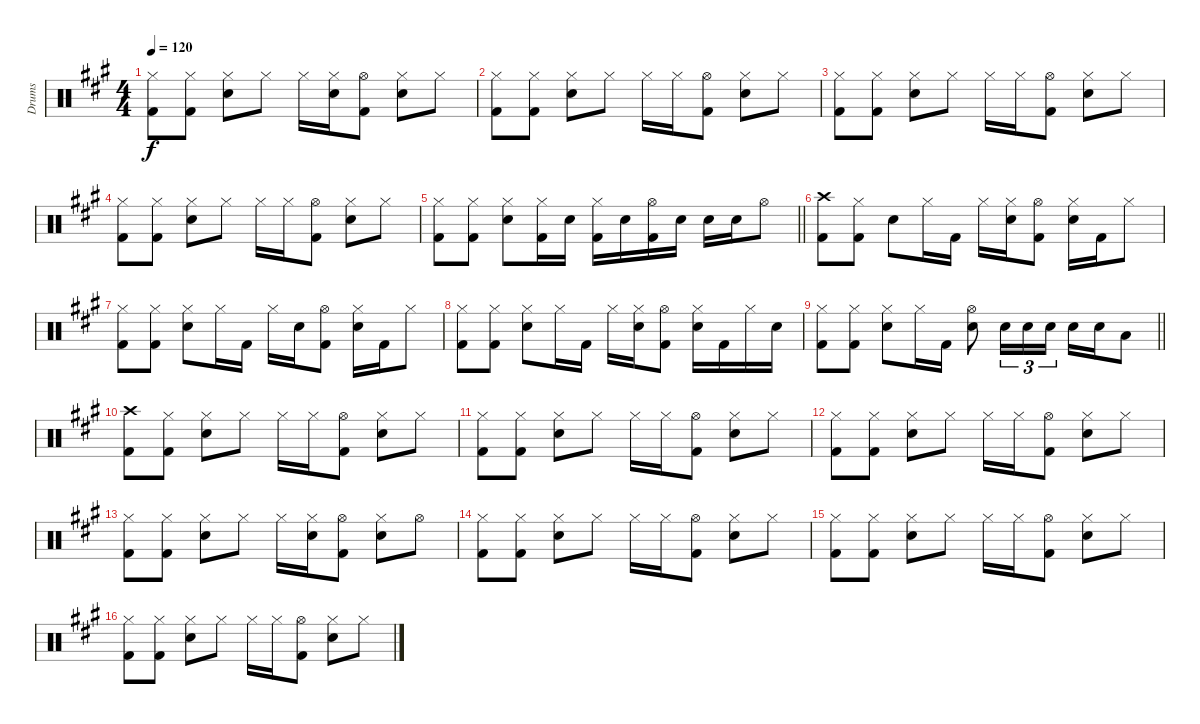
\track ("Drums" "Drums") {instrument percussion}
\staff {score}
\articulation defaults
\ts (4 4)
\tempo 120
\clef neutral
\ks a
("Hi-Hat (closed)" "Kick (hit) 2").8{dy f} ("Hi-Hat (closed)" "Kick (hit) 2").8 ("Hi-Hat (closed)" "Electric Snare (hit)").8 "Hi-Hat (closed)".8 "Hi-Hat (closed)".16 ("Hi-Hat (closed)" "Electric Snare (hit)").16 ("Hi-Hat (open)" "Kick (hit) 2").8 ("Hi-Hat (closed)" "Electric Snare (hit)").8 "Hi-Hat (closed)".8 |
("Hi-Hat (closed)" "Kick (hit) 2").8 ("Hi-Hat (closed)" "Kick (hit) 2").8 ("Hi-Hat (closed)" "Electric Snare (hit)").8 "Hi-Hat (closed)".8 "Hi-Hat (closed)".16 "Hi-Hat (closed)".16 ("Hi-Hat (open)" "Kick (hit) 2").8 ("Hi-Hat (closed)" "Electric Snare (hit)").8 "Hi-Hat (closed)".8 |
("Hi-Hat (closed)" "Kick (hit) 2").8 ("Hi-Hat (closed)" "Kick (hit) 2").8 ("Hi-Hat (closed)" "Electric Snare (hit)").8 "Hi-Hat (closed)".8 "Hi-Hat (closed)".16 "Hi-Hat (closed)".16 ("Hi-Hat (open)" "Kick (hit) 2").8 ("Hi-Hat (closed)" "Electric Snare (hit)").8 "Hi-Hat (closed)".8 |
("Hi-Hat (closed)" "Kick (hit) 2").8 ("Hi-Hat (closed)" "Kick (hit) 2").8 ("Hi-Hat (closed)" "Electric Snare (hit)").8 "Hi-Hat (closed)".8 "Hi-Hat (closed)".16 "Hi-Hat (closed)".16 ("Hi-Hat (open)" "Kick (hit) 2").8 ("Hi-Hat (closed)" "Electric Snare (hit)").8 "Hi-Hat (closed)".8 |
\barLineRight lightlight
("Hi-Hat (closed)" "Kick (hit) 2").8 ("Hi-Hat (closed)" "Kick (hit) 2").8 ("Hi-Hat (closed)" "Electric Snare (hit)").8 ("Hi-Hat (closed)" "Kick (hit) 2").16 "Electric Snare (hit)".16 ("Hi-Hat (closed)" "Kick (hit) 2").16 "Electric Snare (hit)".16 ("Hi-Hat (open)" "Kick (hit) 2").16 "Electric Snare (hit)".16 "Electric Snare (hit)".16 "Electric Snare (hit)".16 "Hi-Hat (open)".8 |
("Crash high (hit)" "Kick (hit) 2").8 ("Hi-Hat (closed)" "Kick (hit) 2").8 "Electric Snare (hit)".8 "Hi-Hat (closed)".16 "Kick (hit) 2".16 "Hi-Hat (closed)".16 ("Hi-Hat (closed)" "Electric Snare (hit)").16 ("Hi-Hat (open)" "Kick (hit) 2").8 ("Hi-Hat (closed)" "Electric Snare (hit)").16 "Kick (hit) 2".16 "Hi-Hat (closed)".8 |
("Hi-Hat (closed)" "Kick (hit) 2").8 ("Hi-Hat (closed)" "Kick (hit) 2").8 ("Hi-Hat (closed)" "Electric Snare (hit)").8 "Hi-Hat (closed)".16 "Kick (hit) 2".16 "Hi-Hat (closed)".16 "Electric Snare (hit)".16 ("Hi-Hat (open)" "Kick (hit) 2").8 ("Hi-Hat (closed)" "Electric Snare (hit)").16 "Kick (hit) 2".16 "Hi-Hat (closed)".8 |
("Hi-Hat (closed)" "Kick (hit) 2").8 ("Hi-Hat (closed)" "Kick (hit) 2").8 ("Hi-Hat (closed)" "Electric Snare (hit)").8 "Hi-Hat (closed)".16 "Kick (hit) 2".16 "Hi-Hat (closed)".16 ("Hi-Hat (closed)" "Electric Snare (hit)").16 ("Hi-Hat (open)" "Kick (hit) 2").8 ("Hi-Hat (closed)" "Electric Snare (hit)").16 "Kick (hit) 2".16 "Hi-Hat (closed)".16 "Electric Snare (hit)".16 |
\barLineRight lightlight
("Hi-Hat (closed)" "Kick (hit) 2").8 ("Hi-Hat (closed)" "Kick (hit) 2").8 ("Hi-Hat (closed)" "Electric Snare (hit)").8 "Hi-Hat (closed)".16 "Kick (hit) 2".16 ("Hi-Hat (open)" "Electric Snare (hit)").8 "Electric Snare (hit)".16{tu (3 2)} "Electric Snare (hit)".16{tu (3 2)} "Electric Snare (hit)".16{tu (3 2)} "Electric Snare (hit)".16 "Electric Snare (hit)".16 "Low Floor Tom (hit)".8 |
("Crash high (hit)" "Kick (hit) 2").8 ("Hi-Hat (closed)" "Kick (hit) 2").8 ("Hi-Hat (closed)" "Electric Snare (hit)").8 "Hi-Hat (closed)".8 "Hi-Hat (closed)".16 "Hi-Hat (closed)".16 ("Hi-Hat (open)" "Kick (hit) 2").8 ("Hi-Hat (closed)" "Electric Snare (hit)").8 "Hi-Hat (closed)".8 |
("Hi-Hat (closed)" "Kick (hit) 2").8 ("Hi-Hat (closed)" "Kick (hit) 2").8 ("Hi-Hat (closed)" "Electric Snare (hit)").8 "Hi-Hat (closed)".8 "Hi-Hat (closed)".16 "Hi-Hat (closed)".16 ("Hi-Hat (open)" "Kick (hit) 2").8 ("Hi-Hat (closed)" "Electric Snare (hit)").8 "Hi-Hat (closed)".8 |
("Hi-Hat (closed)" "Kick (hit) 2").8 ("Hi-Hat (closed)" "Kick (hit) 2").8 ("Hi-Hat (closed)" "Electric Snare (hit)").8 "Hi-Hat (closed)".8 "Hi-Hat (closed)".16 "Hi-Hat (closed)".16 ("Hi-Hat (open)" "Kick (hit) 2").8 ("Hi-Hat (closed)" "Electric Snare (hit)").8 "Hi-Hat (closed)".8 |
("Hi-Hat (closed)" "Kick (hit) 2").8 ("Hi-Hat (closed)" "Kick (hit) 2").8 ("Hi-Hat (closed)" "Electric Snare (hit)").8 "Hi-Hat (closed)".8 "Hi-Hat (closed)".16 ("Hi-Hat (closed)" "Electric Snare (hit)").16 ("Hi-Hat (open)" "Kick (hit) 2").8 ("Hi-Hat (closed)" "Electric Snare (hit)").8 "Hi-Hat (open)".8 |
("Hi-Hat (closed)" "Kick (hit) 2").8 ("Hi-Hat (closed)" "Kick (hit) 2").8 ("Hi-Hat (closed)" "Electric Snare (hit)").8 "Hi-Hat (closed)".8 "Hi-Hat (closed)".16 "Hi-Hat (closed)".16 ("Hi-Hat (open)" "Kick (hit) 2").8 ("Hi-Hat (closed)" "Electric Snare (hit)").8 "Hi-Hat (closed)".8 |
("Hi-Hat (closed)" "Kick (hit) 2").8 ("Hi-Hat (closed)" "Kick (hit) 2").8 ("Hi-Hat (closed)" "Electric Snare (hit)").8 "Hi-Hat (closed)".8 "Hi-Hat (closed)".16 "Hi-Hat (closed)".16 ("Hi-Hat (open)" "Kick (hit) 2").8 ("Hi-Hat (closed)" "Electric Snare (hit)").8 "Hi-Hat (closed)".8 |
("Hi-Hat (closed)" "Kick (hit) 2").8 ("Hi-Hat (closed)" "Kick (hit) 2").8 ("Hi-Hat (closed)" "Electric Snare (hit)").8 "Hi-Hat (closed)".8 "Hi-Hat (closed)".16 "Hi-Hat (closed)".16 ("Hi-Hat (open)" "Kick (hit) 2").8 ("Hi-Hat (closed)" "Electric Snare (hit)").8 "Hi-Hat (closed)".8
